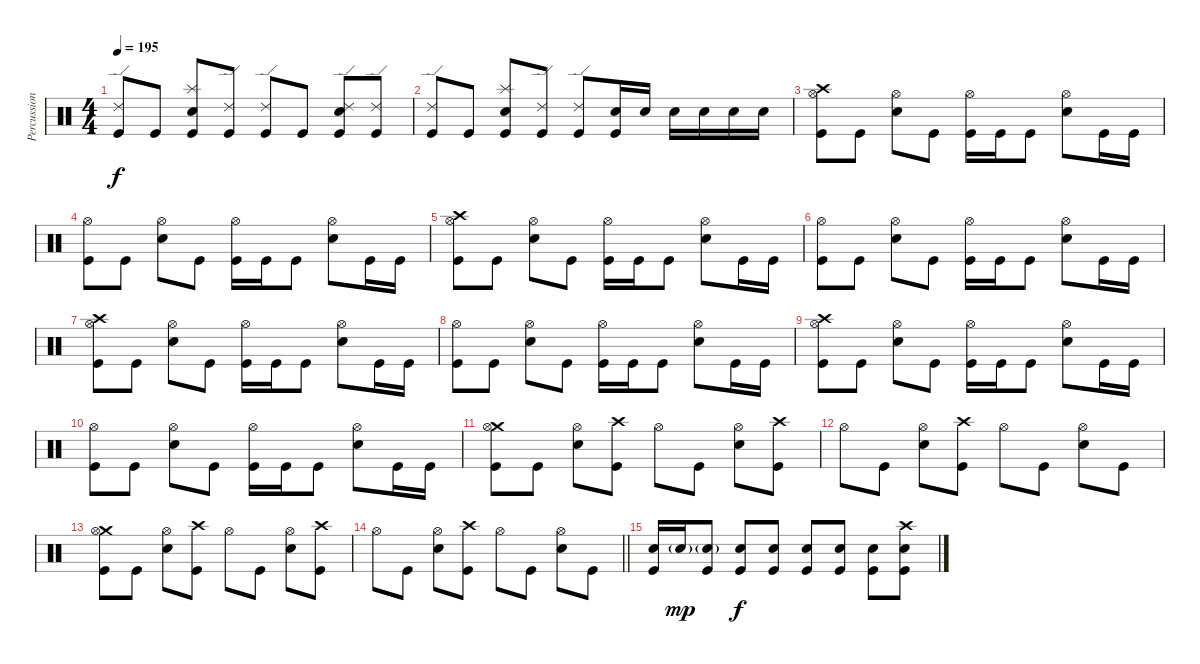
\track ("Percussion" "Percussion") {instrument percussion}
\staff {score}
\articulation defaults
\ts (4 4)
\tempo 195
\clef neutral
\ks c
("Ride (edge) 2" "Kick (hit)").8{dy f} "Kick (hit)".8 ("Splash (hit)" "Electric Snare (hit)" "Kick (hit)").8 ("Ride (edge) 2" "Kick (hit)").8 ("Ride (edge) 2" "Kick (hit)").8 "Kick (hit)".8 ("Ride (edge) 2" "Electric Snare (hit)" "Kick (hit)").8 ("Ride (edge) 2" "Kick (hit)").8 |
("Ride (edge) 2" "Kick (hit)").8 "Kick (hit)".8 ("Splash (hit)" "Electric Snare (hit)" "Kick (hit)").8 ("Ride (edge) 2" "Kick (hit)").8 ("Ride (edge) 2" "Kick (hit)").8 ("Electric Snare (hit)" "Kick (hit)").16 "Electric Snare (hit)".16 "Electric Snare (hit)".16 "Electric Snare (hit)".16 "Electric Snare (hit)".16 "Electric Snare (hit)".16 |
("Crash high (hit)" "Hi-Hat (open)" "Kick (hit)").8 "Kick (hit)".8 ("Hi-Hat (open)" "Electric Snare (hit)").8 "Kick (hit)".8 ("Hi-Hat (open)" "Kick (hit)").16 "Kick (hit)".16 "Kick (hit)".8 ("Hi-Hat (open)" "Electric Snare (hit)").8 "Kick (hit)".16 "Kick (hit)".16 |
("Hi-Hat (open)" "Kick (hit)").8 "Kick (hit)".8 ("Hi-Hat (open)" "Electric Snare (hit)").8 "Kick (hit)".8 ("Hi-Hat (open)" "Kick (hit)").16 "Kick (hit)".16 "Kick (hit)".8 ("Hi-Hat (open)" "Electric Snare (hit)").8 "Kick (hit)".16 "Kick (hit)".16 |
("Crash high (hit)" "Hi-Hat (open)" "Kick (hit)").8 "Kick (hit)".8 ("Hi-Hat (open)" "Electric Snare (hit)").8 "Kick (hit)".8 ("Hi-Hat (open)" "Kick (hit)").16 "Kick (hit)".16 "Kick (hit)".8 ("Hi-Hat (open)" "Electric Snare (hit)").8 "Kick (hit)".16 "Kick (hit)".16 |
("Hi-Hat (open)" "Kick (hit)").8 "Kick (hit)".8 ("Hi-Hat (open)" "Electric Snare (hit)").8 "Kick (hit)".8 ("Hi-Hat (open)" "Kick (hit)").16 "Kick (hit)".16 "Kick (hit)".8 ("Hi-Hat (open)" "Electric Snare (hit)").8 "Kick (hit)".16 "Kick (hit)".16 |
("Crash high (hit)" "Hi-Hat (open)" "Kick (hit)").8 "Kick (hit)".8 ("Hi-Hat (open)" "Electric Snare (hit)").8 "Kick (hit)".8 ("Hi-Hat (open)" "Kick (hit)").16 "Kick (hit)".16 "Kick (hit)".8 ("Hi-Hat (open)" "Electric Snare (hit)").8 "Kick (hit)".16 "Kick (hit)".16 |
("Hi-Hat (open)" "Kick (hit)").8 "Kick (hit)".8 ("Hi-Hat (open)" "Electric Snare (hit)").8 "Kick (hit)".8 ("Hi-Hat (open)" "Kick (hit)").16 "Kick (hit)".16 "Kick (hit)".8 ("Hi-Hat (open)" "Electric Snare (hit)").8 "Kick (hit)".16 "Kick (hit)".16 |
("Crash high (hit)" "Hi-Hat (open)" "Kick (hit)").8 "Kick (hit)".8 ("Hi-Hat (open)" "Electric Snare (hit)").8 "Kick (hit)".8 ("Hi-Hat (open)" "Kick (hit)").16 "Kick (hit)".16 "Kick (hit)".8 ("Hi-Hat (open)" "Electric Snare (hit)").8 "Kick (hit)".16 "Kick (hit)".16 |
("Hi-Hat (open)" "Kick (hit)").8 "Kick (hit)".8 ("Hi-Hat (open)" "Electric Snare (hit)").8 "Kick (hit)".8 ("Hi-Hat (open)" "Kick (hit)").16 "Kick (hit)".16 "Kick (hit)".8 ("Hi-Hat (open)" "Electric Snare (hit)").8 "Kick (hit)".16 "Kick (hit)".16 |
("Crash medium (hit)" "Hi-Hat (open)" "Kick (hit)").8 "Kick (hit)".8 ("Hi-Hat (open)" "Electric Snare (hit)").8 ("Crash high (hit)" "Kick (hit)").8 "Hi-Hat (open)".8 "Kick (hit)".8 ("Hi-Hat (open)" "Electric Snare (hit)").8 ("Crash high (hit)" "Kick (hit)").8 |
"Hi-Hat (open)".8 "Kick (hit)".8 ("Hi-Hat (open)" "Electric Snare (hit)").8 ("Crash high (hit)" "Kick (hit)").8 "Hi-Hat (open)".8 "Kick (hit)".8 ("Hi-Hat (open)" "Electric Snare (hit)").8 "Kick (hit)".8 |
("Crash medium (hit)" "Hi-Hat (open)" "Kick (hit)").8 "Kick (hit)".8 ("Hi-Hat (open)" "Electric Snare (hit)").8 ("Crash high (hit)" "Kick (hit)").8 "Hi-Hat (open)".8 "Kick (hit)".8 ("Hi-Hat (open)" "Electric Snare (hit)").8 ("Crash high (hit)" "Kick (hit)").8 |
\barLineRight lightlight "Hi-Hat (open)".8 "Kick (hit)".8
("Hi-Hat (open)" "Electric Snare (hit)").8 ("Crash high (hit)" "Kick (hit)").8 "Hi-Hat (open)".8 "Kick (hit)".8 ("Hi-Hat (open)" "Electric Snare (hit)").8 "Kick (hit)".8 |
("Electric Snare (hit)" "Kick (hit)").16 "Electric Snare (hit)"{g}.16{dy mp} ("Electric Snare (hit)"{g} "Kick (hit)").8 ("Electric Snare (hit)" "Kick (hit)").8{dy f} ("Electric Snare (hit)" "Kick (hit)").8 ("Electric Snare (hit)" "Kick (hit)").8 ("Electric Snare (hit)" "Kick (hit)").8 ("Electric Snare (hit)" "Kick (hit)").8 ("Crash high (hit)" "Electric Snare (hit)" "Kick (hit)").8
